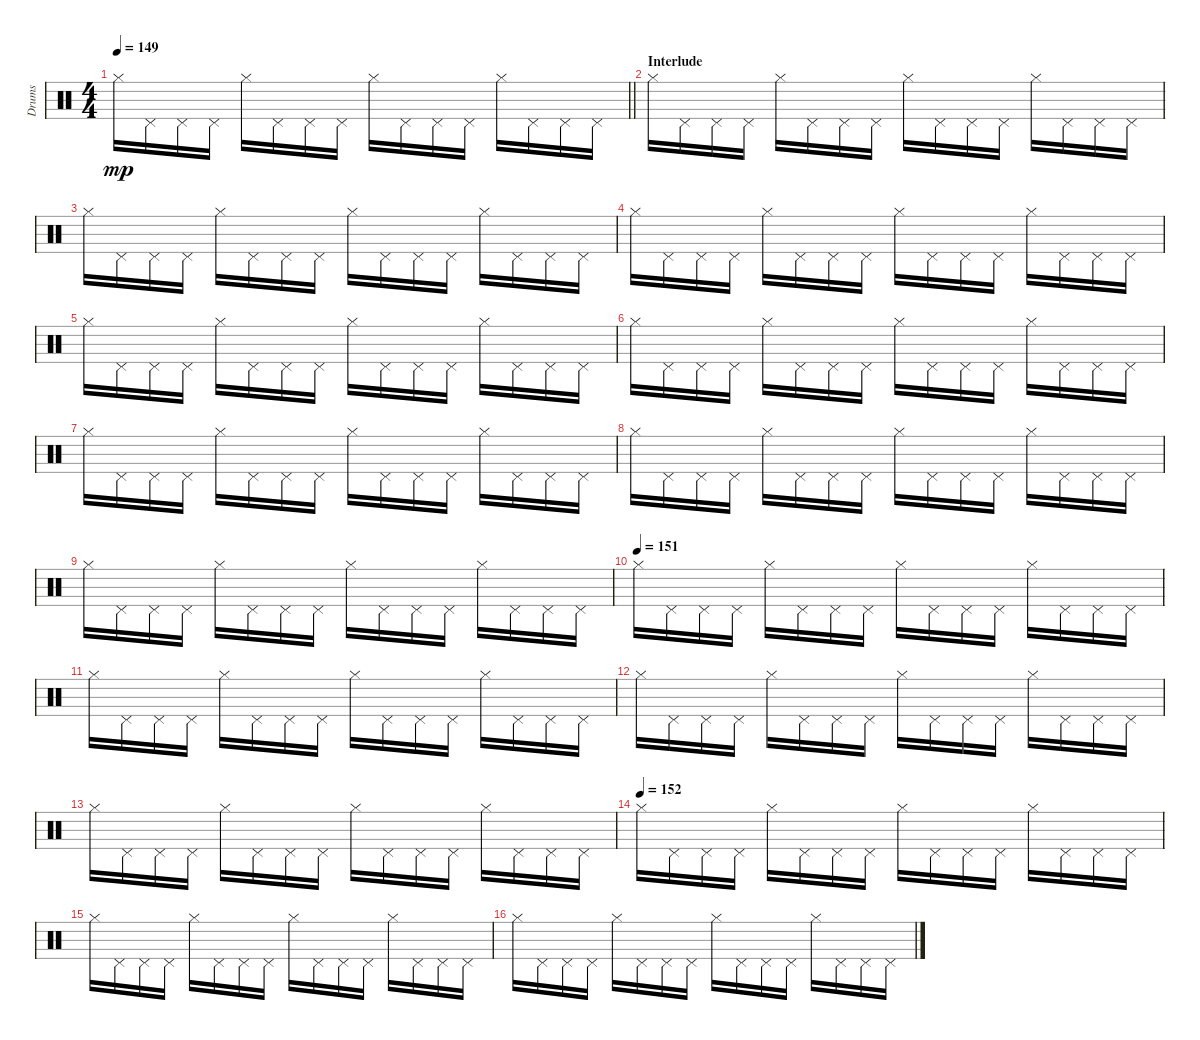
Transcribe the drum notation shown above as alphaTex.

\track ("Drums" "Drums") {instrument percussion}
\staff {score}
\articulation defaults
\ts (4 4)
\tempo 149
\clef neutral
\barLineRight lightlight
\ks c "Hi-Hat (closed)".16{dy mp} "Pedal Hi-Hat (hit)".16 "Pedal Hi-Hat (hit)".16 "Pedal Hi-Hat (hit)".16 "Hi-Hat (closed)".16 "Pedal Hi-Hat (hit)".16 "Pedal Hi-Hat (hit)".16 "Pedal Hi-Hat (hit)".16 "Hi-Hat (closed)".16 "Pedal Hi-Hat (hit)".16 "Pedal Hi-Hat (hit)".16 "Pedal Hi-Hat (hit)".16 "Hi-Hat (closed)".16 "Pedal Hi-Hat (hit)".16 "Pedal Hi-Hat (hit)".16 "Pedal Hi-Hat (hit)".16
|
\section ("" "Interlude")
"Hi-Hat (closed)".16 "Pedal Hi-Hat (hit)".16 "Pedal Hi-Hat (hit)".16 "Pedal Hi-Hat (hit)".16 "Hi-Hat (closed)".16 "Pedal Hi-Hat (hit)".16 "Pedal Hi-Hat (hit)".16 "Pedal Hi-Hat (hit)".16 "Hi-Hat (closed)".16 "Pedal Hi-Hat (hit)".16 "Pedal Hi-Hat (hit)".16 "Pedal Hi-Hat (hit)".16 "Hi-Hat (closed)".16 "Pedal Hi-Hat (hit)".16 "Pedal Hi-Hat (hit)".16 "Pedal Hi-Hat (hit)".16 |
"Hi-Hat (closed)".16 "Pedal Hi-Hat (hit)".16 "Pedal Hi-Hat (hit)".16 "Pedal Hi-Hat (hit)".16 "Hi-Hat (closed)".16 "Pedal Hi-Hat (hit)".16 "Pedal Hi-Hat (hit)".16 "Pedal Hi-Hat (hit)".16 "Hi-Hat (closed)".16 "Pedal Hi-Hat (hit)".16 "Pedal Hi-Hat (hit)".16 "Pedal Hi-Hat (hit)".16 "Hi-Hat (closed)".16 "Pedal Hi-Hat (hit)".16 "Pedal Hi-Hat (hit)".16 "Pedal Hi-Hat (hit)".16 |
"Hi-Hat (closed)".16 "Pedal Hi-Hat (hit)".16 "Pedal Hi-Hat (hit)".16 "Pedal Hi-Hat (hit)".16 "Hi-Hat (closed)".16 "Pedal Hi-Hat (hit)".16 "Pedal Hi-Hat (hit)".16 "Pedal Hi-Hat (hit)".16 "Hi-Hat (closed)".16 "Pedal Hi-Hat (hit)".16 "Pedal Hi-Hat (hit)".16 "Pedal Hi-Hat (hit)".16 "Hi-Hat (closed)".16 "Pedal Hi-Hat (hit)".16 "Pedal Hi-Hat (hit)".16 "Pedal Hi-Hat (hit)".16 |
"Hi-Hat (closed)".16 "Pedal Hi-Hat (hit)".16 "Pedal Hi-Hat (hit)".16 "Pedal Hi-Hat (hit)".16 "Hi-Hat (closed)".16 "Pedal Hi-Hat (hit)".16 "Pedal Hi-Hat (hit)".16 "Pedal Hi-Hat (hit)".16 "Hi-Hat (closed)".16 "Pedal Hi-Hat (hit)".16 "Pedal Hi-Hat (hit)".16 "Pedal Hi-Hat (hit)".16 "Hi-Hat (closed)".16 "Pedal Hi-Hat (hit)".16 "Pedal Hi-Hat (hit)".16 "Pedal Hi-Hat (hit)".16 |
"Hi-Hat (closed)".16 "Pedal Hi-Hat (hit)".16 "Pedal Hi-Hat (hit)".16 "Pedal Hi-Hat (hit)".16 "Hi-Hat (closed)".16 "Pedal Hi-Hat (hit)".16 "Pedal Hi-Hat (hit)".16 "Pedal Hi-Hat (hit)".16 "Hi-Hat (closed)".16 "Pedal Hi-Hat (hit)".16 "Pedal Hi-Hat (hit)".16 "Pedal Hi-Hat (hit)".16 "Hi-Hat (closed)".16 "Pedal Hi-Hat (hit)".16 "Pedal Hi-Hat (hit)".16 "Pedal Hi-Hat (hit)".16 |
"Hi-Hat (closed)".16 "Pedal Hi-Hat (hit)".16 "Pedal Hi-Hat (hit)".16 "Pedal Hi-Hat (hit)".16 "Hi-Hat (closed)".16 "Pedal Hi-Hat (hit)".16 "Pedal Hi-Hat (hit)".16 "Pedal Hi-Hat (hit)".16 "Hi-Hat (closed)".16 "Pedal Hi-Hat (hit)".16 "Pedal Hi-Hat (hit)".16 "Pedal Hi-Hat (hit)".16 "Hi-Hat (closed)".16 "Pedal Hi-Hat (hit)".16 "Pedal Hi-Hat (hit)".16 "Pedal Hi-Hat (hit)".16 |
"Hi-Hat (closed)".16 "Pedal Hi-Hat (hit)".16 "Pedal Hi-Hat (hit)".16 "Pedal Hi-Hat (hit)".16 "Hi-Hat (closed)".16 "Pedal Hi-Hat (hit)".16 "Pedal Hi-Hat (hit)".16 "Pedal Hi-Hat (hit)".16 "Hi-Hat (closed)".16 "Pedal Hi-Hat (hit)".16 "Pedal Hi-Hat (hit)".16 "Pedal Hi-Hat (hit)".16 "Hi-Hat (closed)".16 "Pedal Hi-Hat (hit)".16 "Pedal Hi-Hat (hit)".16 "Pedal Hi-Hat (hit)".16 |
"Hi-Hat (closed)".16 "Pedal Hi-Hat (hit)".16 "Pedal Hi-Hat (hit)".16 "Pedal Hi-Hat (hit)".16 "Hi-Hat (closed)".16 "Pedal Hi-Hat (hit)".16 "Pedal Hi-Hat (hit)".16 "Pedal Hi-Hat (hit)".16 "Hi-Hat (closed)".16 "Pedal Hi-Hat (hit)".16 "Pedal Hi-Hat (hit)".16 "Pedal Hi-Hat (hit)".16 "Hi-Hat (closed)".16 "Pedal Hi-Hat (hit)".16 "Pedal Hi-Hat (hit)".16 "Pedal Hi-Hat (hit)".16 |
\tempo (151)
"Hi-Hat (closed)".16 "Pedal Hi-Hat (hit)".16 "Pedal Hi-Hat (hit)".16 "Pedal Hi-Hat (hit)".16 "Hi-Hat (closed)".16 "Pedal Hi-Hat (hit)".16 "Pedal Hi-Hat (hit)".16 "Pedal Hi-Hat (hit)".16 "Hi-Hat (closed)".16 "Pedal Hi-Hat (hit)".16 "Pedal Hi-Hat (hit)".16 "Pedal Hi-Hat (hit)".16 "Hi-Hat (closed)".16 "Pedal Hi-Hat (hit)".16 "Pedal Hi-Hat (hit)".16 "Pedal Hi-Hat (hit)".16 |
"Hi-Hat (closed)".16 "Pedal Hi-Hat (hit)".16 "Pedal Hi-Hat (hit)".16 "Pedal Hi-Hat (hit)".16 "Hi-Hat (closed)".16 "Pedal Hi-Hat (hit)".16 "Pedal Hi-Hat (hit)".16 "Pedal Hi-Hat (hit)".16 "Hi-Hat (closed)".16 "Pedal Hi-Hat (hit)".16 "Pedal Hi-Hat (hit)".16 "Pedal Hi-Hat (hit)".16 "Hi-Hat (closed)".16 "Pedal Hi-Hat (hit)".16 "Pedal Hi-Hat (hit)".16 "Pedal Hi-Hat (hit)".16 |
"Hi-Hat (closed)".16 "Pedal Hi-Hat (hit)".16 "Pedal Hi-Hat (hit)".16 "Pedal Hi-Hat (hit)".16 "Hi-Hat (closed)".16 "Pedal Hi-Hat (hit)".16 "Pedal Hi-Hat (hit)".16 "Pedal Hi-Hat (hit)".16 "Hi-Hat (closed)".16 "Pedal Hi-Hat (hit)".16 "Pedal Hi-Hat (hit)".16 "Pedal Hi-Hat (hit)".16 "Hi-Hat (closed)".16 "Pedal Hi-Hat (hit)".16 "Pedal Hi-Hat (hit)".16 "Pedal Hi-Hat (hit)".16 |
"Hi-Hat (closed)".16 "Pedal Hi-Hat (hit)".16 "Pedal Hi-Hat (hit)".16 "Pedal Hi-Hat (hit)".16 "Hi-Hat (closed)".16 "Pedal Hi-Hat (hit)".16 "Pedal Hi-Hat (hit)".16 "Pedal Hi-Hat (hit)".16 "Hi-Hat (closed)".16 "Pedal Hi-Hat (hit)".16 "Pedal Hi-Hat (hit)".16 "Pedal Hi-Hat (hit)".16 "Hi-Hat (closed)".16 "Pedal Hi-Hat (hit)".16 "Pedal Hi-Hat (hit)".16 "Pedal Hi-Hat (hit)".16 |
\tempo (152)
"Hi-Hat (closed)".16 "Pedal Hi-Hat (hit)".16 "Pedal Hi-Hat (hit)".16 "Pedal Hi-Hat (hit)".16 "Hi-Hat (closed)".16 "Pedal Hi-Hat (hit)".16 "Pedal Hi-Hat (hit)".16 "Pedal Hi-Hat (hit)".16 "Hi-Hat (closed)".16 "Pedal Hi-Hat (hit)".16 "Pedal Hi-Hat (hit)".16 "Pedal Hi-Hat (hit)".16 "Hi-Hat (closed)".16 "Pedal Hi-Hat (hit)".16 "Pedal Hi-Hat (hit)".16 "Pedal Hi-Hat (hit)".16 |
"Hi-Hat (closed)".16 "Pedal Hi-Hat (hit)".16 "Pedal Hi-Hat (hit)".16 "Pedal Hi-Hat (hit)".16 "Hi-Hat (closed)".16 "Pedal Hi-Hat (hit)".16 "Pedal Hi-Hat (hit)".16 "Pedal Hi-Hat (hit)".16 "Hi-Hat (closed)".16 "Pedal Hi-Hat (hit)".16 "Pedal Hi-Hat (hit)".16 "Pedal Hi-Hat (hit)".16 "Hi-Hat (closed)".16 "Pedal Hi-Hat (hit)".16 "Pedal Hi-Hat (hit)".16 "Pedal Hi-Hat (hit)".16 |
"Hi-Hat (closed)".16 "Pedal Hi-Hat (hit)".16 "Pedal Hi-Hat (hit)".16 "Pedal Hi-Hat (hit)".16 "Hi-Hat (closed)".16 "Pedal Hi-Hat (hit)".16 "Pedal Hi-Hat (hit)".16 "Pedal Hi-Hat (hit)".16 "Hi-Hat (closed)".16 "Pedal Hi-Hat (hit)".16 "Pedal Hi-Hat (hit)".16 "Pedal Hi-Hat (hit)".16 "Hi-Hat (closed)".16 "Pedal Hi-Hat (hit)".16 "Pedal Hi-Hat (hit)".16 "Pedal Hi-Hat (hit)".16
